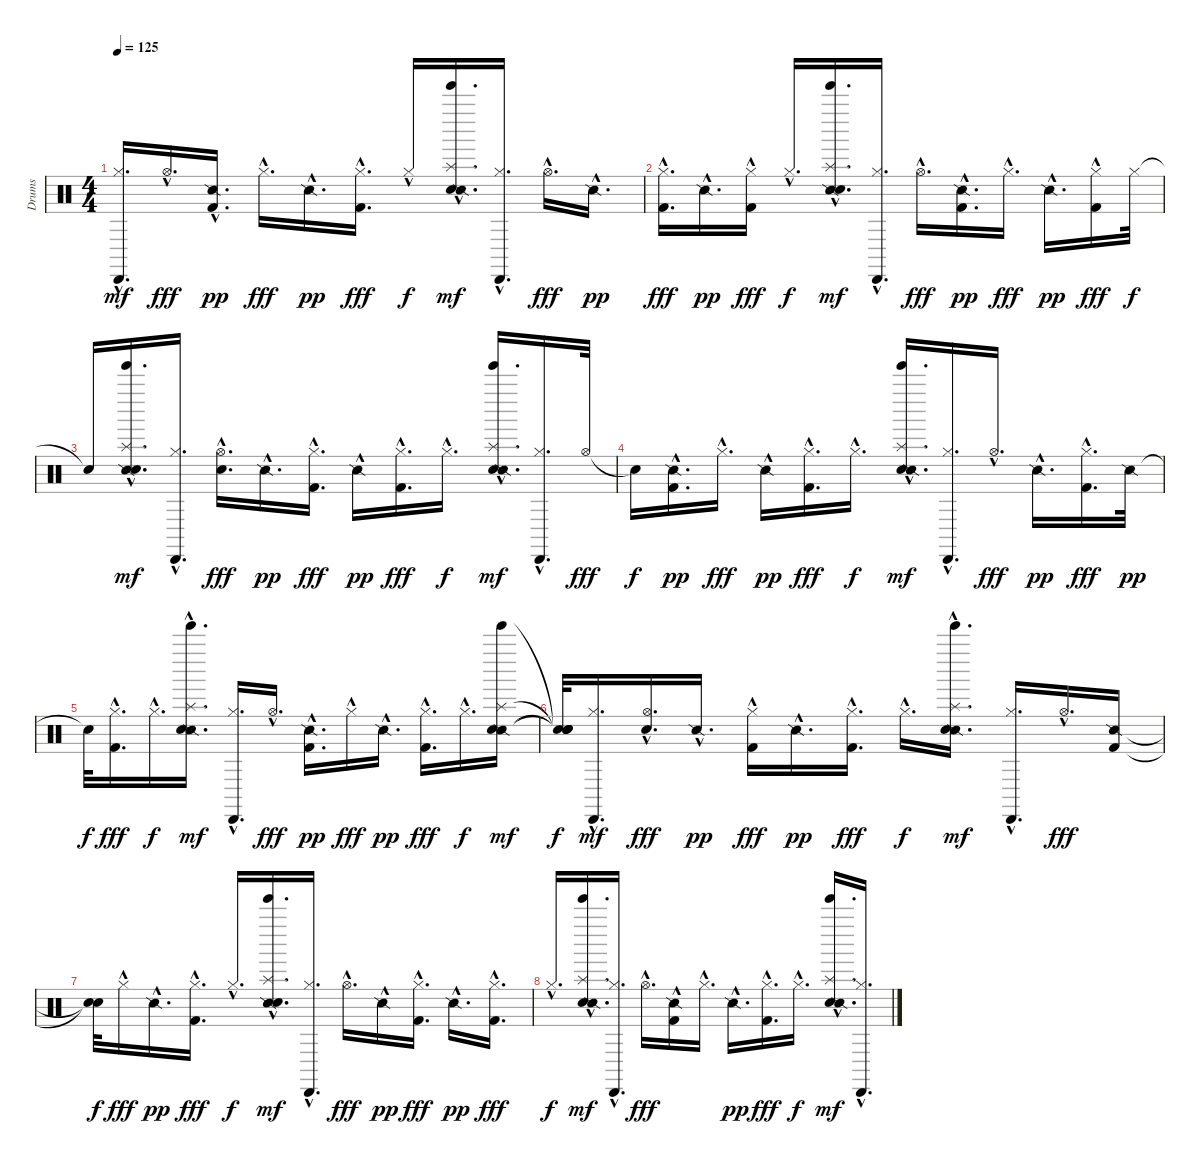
\track ("Drums" "Drums") {instrument percussion}
\staff {score}
\articulation defaults
\ts (4 4)
\tempo 125
\clef neutral
\ks c
("Cabasa (hit)"{hac} "Hi-Hat (closed)"{hac}).16{d dy mf} "Hi-Hat (open)"{hac}.16{d dy fff} ("Kick (hit) 2"{hac} "Snare (side stick) 2"{hac}).16{d dy pp} "Hi-Hat (closed)"{hac}.16{d dy fff} "Snare (side stick) 2"{hac}.16{d dy pp} ("Hi-Hat (closed)"{hac} "Kick (hit) 2"{hac}).16{d dy fff} "Hi-Hat (closed)"{hac}.16{dy f} ("Hand Clap (hit)"{hac} "Snare (side stick) 2"{hac} "Tinkle Bell (hit)"{hac} "Splash (hit)"{hac}).16{d dy mf} ("Hi-Hat (closed)"{hac} "Cabasa (hit)"{hac}).16{d} "Hi-Hat (open)"{hac}.16{d dy fff} "Snare (side stick) 2"{hac}.16{d dy pp} |
("Hi-Hat (closed)"{hac} "Kick (hit) 2"{hac}).16{d dy fff} "Snare (side stick) 2"{hac}.16{d dy pp} ("Hi-Hat (closed)"{hac} "Kick (hit) 2"{hac}).16{dy fff} "Hi-Hat (closed)"{hac}.16{d dy f} ("Snare (side stick) 2"{hac} "Hand Clap (hit)"{hac} "Tinkle Bell (hit)"{hac} "Splash (hit)"{hac}).16{d dy mf} ("Hi-Hat (closed)"{hac} "Cabasa (hit)"{hac}).16{d} "Hi-Hat (open)"{hac}.16{d dy fff} ("Kick (hit) 2"{hac} "Snare (side stick) 2"{hac}).16{d dy pp} "Hi-Hat (closed)"{hac}.16{d dy fff} "Snare (side stick) 2"{hac}.16{d dy pp} ("Kick (hit) 2"{hac} "Hi-Hat (closed)"{hac}).16{dy fff} "Hi-Hat (closed)".32{dy f} |
"Snare (hit)"{t}.16 ("Snare (side stick) 2"{hac} "Hand Clap (hit)"{hac} "Tinkle Bell (hit)"{hac} "Splash (hit)"{hac}).16{d dy mf} ("Cabasa (hit)"{hac} "Hi-Hat (closed)"{hac}).16{d} ("Hand Clap (hit)"{hac} "Hi-Hat (open)"{hac}).16{d dy fff} "Snare (side stick) 2"{hac}.16{d dy pp} ("Kick (hit) 2"{hac} "Hi-Hat (closed)"{hac}).16{d dy fff} "Snare (side stick) 2"{hac}.16{dy pp} ("Hi-Hat (closed)"{hac} "Kick (hit) 2"{hac}).16{d dy fff} "Hi-Hat (closed)"{hac}.16{d dy f} ("Hand Clap (hit)"{hac} "Snare (side stick) 2"{hac} "Tinkle Bell (hit)"{hac} "Splash (hit)"{hac}).16{d dy mf} ("Cabasa (hit)"{hac} "Hi-Hat (closed)"{hac}).16{d} "Hi-Hat (open)".32{dy fff} |
"Snare (hit)"{t}.16{dy f} ("Kick (hit) 2"{hac} "Snare (side stick) 2"{hac}).16{d dy pp} "Hi-Hat (closed)"{hac}.16{d dy fff} "Snare (side stick) 2"{hac}.16{dy pp} ("Kick (hit) 2"{hac} "Hi-Hat (closed)"{hac}).16{d dy fff} "Hi-Hat (closed)"{hac}.16{d dy f} ("Hand Clap (hit)"{hac} "Snare (side stick) 2"{hac} "Tinkle Bell (hit)"{hac} "Splash (hit)"{hac}).16{d dy mf} ("Hi-Hat (closed)"{hac} "Cabasa (hit)"{hac}).16{d} "Hi-Hat (open)"{hac}.16{d dy fff} "Snare (side stick) 2"{hac}.16{d dy pp} ("Hi-Hat (closed)"{hac} "Kick (hit) 2"{hac}).16{d dy fff} "Snare (side stick) 2".32{dy pp} |
"Snare (hit)"{t}.32{dy f} ("Hi-Hat (closed)"{hac} "Kick (hit) 2"{hac}).16{d dy fff} "Hi-Hat (closed)"{hac}.16{d dy f} ("Snare (side stick) 2"{hac} "Hand Clap (hit)"{hac} "Tinkle Bell (hit)"{hac} "Splash (hit)"{hac}).16{d dy mf} ("Hi-Hat (closed)"{hac} "Cabasa (hit)"{hac}).16{d} "Hi-Hat (open)"{hac}.16{d dy fff} ("Kick (hit) 2"{hac} "Snare (side stick) 2"{hac}).16{d dy pp} "Hi-Hat (closed)"{hac}.16{dy fff} "Snare (side stick) 2"{hac}.16{d dy pp} ("Hi-Hat (closed)"{hac} "Kick (hit) 2"{hac}).16{d dy fff} "Hi-Hat (closed)"{hac}.16{d dy f} ("Snare (side stick) 2" "Hand Clap (hit)" "Tinkle Bell (hit)" "Splash (hit)").16{dy mf} |
("Snare (hit)"{t} "Snare (hit)"{t} "Snare (hit)"{t} "Snare (hit)"{t}).32{dy f} ("Cabasa (hit)"{hac} "Hi-Hat (closed)"{hac}).16{d dy mf} ("Hand Clap (hit)"{hac} "Hi-Hat (open)"{hac}).16{d dy fff} "Snare (side stick) 2"{hac}.16{d dy pp} ("Kick (hit) 2"{hac} "Hi-Hat (closed)"{hac}).16{dy fff} "Snare (side stick) 2"{hac}.16{d dy pp} ("Kick (hit) 2"{hac} "Hi-Hat (closed)"{hac}).16{d dy fff} "Hi-Hat (closed)"{hac}.16{d dy f} ("Snare (side stick) 2"{hac} "Hand Clap (hit)"{hac} "Tinkle Bell (hit)"{hac} "Splash (hit)"{hac}).16{d dy mf} ("Hi-Hat (closed)"{hac} "Cabasa (hit)"{hac}).16{d} "Hi-Hat (open)"{hac}.16{d dy fff} ("Snare (side stick) 2" "Kick (hit) 2").16 |
("Snare (hit)"{t} "Snare (hit)"{t}).32{dy f} "Hi-Hat (closed)"{hac}.16{dy fff} "Snare (side stick) 2"{hac}.16{d dy pp} ("Hi-Hat (closed)"{hac} "Kick (hit) 2"{hac}).16{d dy fff} "Hi-Hat (closed)"{hac}.16{d dy f} ("Snare (side stick) 2"{hac} "Hand Clap (hit)"{hac} "Tinkle Bell (hit)"{hac} "Splash (hit)"{hac}).16{d dy mf} ("Hi-Hat (closed)"{hac} "Cabasa (hit)"{hac}).16{d} "Hi-Hat (open)"{hac}.16{d dy fff} "Snare (side stick) 2"{hac}.16{dy pp} ("Hi-Hat (closed)"{hac} "Kick (hit) 2"{hac}).16{d dy fff} "Snare (side stick) 2"{hac}.16{d dy pp} ("Kick (hit) 2"{hac} "Hi-Hat (closed)"{hac}).16{d dy fff} |
"Hi-Hat (closed)"{hac}.16{d dy f} ("Hand Clap (hit)"{hac} "Snare (side stick) 2"{hac} "Tinkle Bell (hit)"{hac} "Splash (hit)"{hac}).16{d dy mf} ("Hi-Hat (closed)"{hac} "Cabasa (hit)"{hac}).16{d} "Hi-Hat (open)"{hac}.16{d dy fff} ("Snare (side stick) 2"{hac} "Kick (hit) 2"{hac}).16 "Hi-Hat (closed)"{hac}.16{d} "Snare (side stick) 2"{hac}.16{d dy pp} ("Kick (hit) 2"{hac} "Hi-Hat (closed)"{hac}).16{d dy fff} "Hi-Hat (closed)"{hac}.16{d dy f} ("Hand Clap (hit)"{hac} "Snare (side stick) 2"{hac} "Tinkle Bell (hit)"{hac} "Splash (hit)"{hac}).16{d dy mf} ("Hi-Hat (closed)"{hac} "Cabasa (hit)"{hac}).16{d}
